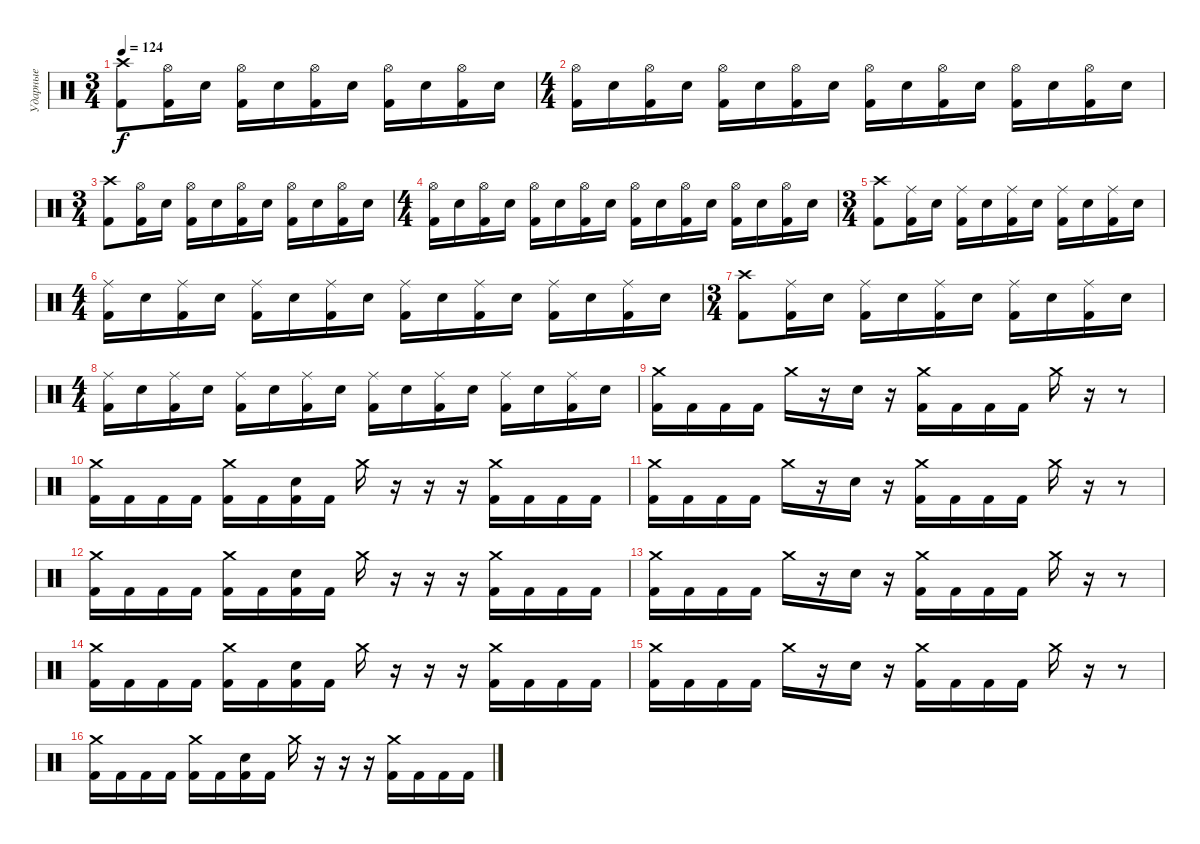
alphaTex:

\track ("Ударные" "Ударные") {instrument percussion}
\staff {score}
\articulation defaults
\ts (3 4)
\tempo 124
\clef neutral
\ks c
("Crash high (hit)" "Kick (hit) 2").8{dy f} ("Hi-Hat (open)" "Kick (hit) 2").16 "Electric Snare (hit)".16 ("Hi-Hat (open)" "Kick (hit) 2").16 "Electric Snare (hit)".16 ("Hi-Hat (open)" "Kick (hit) 2").16 "Electric Snare (hit)".16 ("Hi-Hat (open)" "Kick (hit) 2").16 "Electric Snare (hit)".16 ("Hi-Hat (open)" "Kick (hit) 2").16 "Electric Snare (hit)".16 |
\ts (4 4)
("Hi-Hat (open)" "Kick (hit) 2").16 "Electric Snare (hit)".16 ("Hi-Hat (open)" "Kick (hit) 2").16 "Electric Snare (hit)".16 ("Hi-Hat (open)" "Kick (hit) 2").16 "Electric Snare (hit)".16 ("Hi-Hat (open)" "Kick (hit) 2").16 "Electric Snare (hit)".16 ("Hi-Hat (open)" "Kick (hit) 2").16 "Electric Snare (hit)".16 ("Hi-Hat (open)" "Kick (hit) 2").16 "Electric Snare (hit)".16 ("Hi-Hat (open)" "Kick (hit) 2").16 "Electric Snare (hit)".16 ("Hi-Hat (open)" "Kick (hit) 2").16 "Electric Snare (hit)".16 |
\ts (3 4)
("Crash high (hit)" "Kick (hit) 2").8 ("Hi-Hat (open)" "Kick (hit) 2").16 "Electric Snare (hit)".16 ("Hi-Hat (open)" "Kick (hit) 2").16 "Electric Snare (hit)".16 ("Hi-Hat (open)" "Kick (hit) 2").16 "Electric Snare (hit)".16 ("Hi-Hat (open)" "Kick (hit) 2").16 "Electric Snare (hit)".16 ("Hi-Hat (open)" "Kick (hit) 2").16 "Electric Snare (hit)".16 |
\ts (4 4)
("Hi-Hat (open)" "Kick (hit) 2").16 "Electric Snare (hit)".16 ("Hi-Hat (open)" "Kick (hit) 2").16 "Electric Snare (hit)".16 ("Hi-Hat (open)" "Kick (hit) 2").16 "Electric Snare (hit)".16 ("Hi-Hat (open)" "Kick (hit) 2").16 "Electric Snare (hit)".16 ("Hi-Hat (open)" "Kick (hit) 2").16 "Electric Snare (hit)".16 ("Hi-Hat (open)" "Kick (hit) 2").16 "Electric Snare (hit)".16 ("Hi-Hat (open)" "Kick (hit) 2").16 "Electric Snare (hit)".16 ("Hi-Hat (open)" "Kick (hit) 2").16 "Electric Snare (hit)".16 |
\ts (3 4)
("Crash high (hit)" "Kick (hit) 2").8 ("Ride (middle)" "Kick (hit) 2").16 "Electric Snare (hit)".16 ("Ride (middle)" "Kick (hit) 2").16 "Electric Snare (hit)".16 ("Ride (middle)" "Kick (hit) 2").16 "Electric Snare (hit)".16 ("Ride (middle)" "Kick (hit) 2").16 "Electric Snare (hit)".16 ("Ride (middle)" "Kick (hit) 2").16 "Electric Snare (hit)".16 |
\ts (4 4)
("Ride (middle)" "Kick (hit) 2").16 "Electric Snare (hit)".16 ("Ride (middle)" "Kick (hit) 2").16 "Electric Snare (hit)".16 ("Ride (middle)" "Kick (hit) 2").16 "Electric Snare (hit)".16 ("Ride (middle)" "Kick (hit) 2").16 "Electric Snare (hit)".16 ("Ride (middle)" "Kick (hit) 2").16 "Electric Snare (hit)".16 ("Ride (middle)" "Kick (hit) 2").16 "Electric Snare (hit)".16 ("Ride (middle)" "Kick (hit) 2").16 "Electric Snare (hit)".16 ("Ride (middle)" "Kick (hit) 2").16 "Electric Snare (hit)".16 |
\ts (3 4)
("Crash high (hit)" "Kick (hit) 2").8 ("Ride (middle)" "Kick (hit) 2").16 "Electric Snare (hit)".16 ("Ride (middle)" "Kick (hit) 2").16 "Electric Snare (hit)".16 ("Ride (middle)" "Kick (hit) 2").16 "Electric Snare (hit)".16 ("Ride (middle)" "Kick (hit) 2").16 "Electric Snare (hit)".16 ("Ride (middle)" "Kick (hit) 2").16 "Electric Snare (hit)".16 |
\ts (4 4)
("Ride (middle)" "Kick (hit) 2").16 "Electric Snare (hit)".16 ("Ride (middle)" "Kick (hit) 2").16 "Electric Snare (hit)".16 ("Ride (middle)" "Kick (hit) 2").16 "Electric Snare (hit)".16 ("Ride (middle)" "Kick (hit) 2").16 "Electric Snare (hit)".16 ("Ride (middle)" "Kick (hit) 2").16 "Electric Snare (hit)".16 ("Ride (middle)" "Kick (hit) 2").16 "Electric Snare (hit)".16 ("Ride (middle)" "Kick (hit) 2").16 "Electric Snare (hit)".16 ("Ride (middle)" "Kick (hit) 2").16 "Electric Snare (hit)".16 |
("Crash medium (hit)" "Kick (hit) 2").16 "Kick (hit) 2".16 "Kick (hit) 2".16 "Kick (hit) 2".16 "Crash medium (hit)".16 r.16 "Electric Snare (hit)".16 r.16 ("Crash medium (hit)" "Kick (hit) 2").16 "Kick (hit) 2".16 "Kick (hit) 2".16 "Kick (hit) 2".16 "Crash medium (hit)".16 r.16 r.8 |
("Crash medium (hit)" "Kick (hit) 2").16 "Kick (hit) 2".16 "Kick (hit) 2".16 "Kick (hit) 2".16 ("Crash medium (hit)" "Kick (hit) 2").16 "Kick (hit) 2".16 ("Electric Snare (hit)" "Kick (hit) 2").16 "Kick (hit) 2".16 "Crash medium (hit)".16 r.16 r.16 r.16 ("Crash medium (hit)" "Kick (hit) 2").16 "Kick (hit) 2".16 "Kick (hit) 2".16 "Kick (hit) 2".16 |
("Crash medium (hit)" "Kick (hit) 2").16 "Kick (hit) 2".16 "Kick (hit) 2".16 "Kick (hit) 2".16 "Crash medium (hit)".16 r.16 "Electric Snare (hit)".16 r.16 ("Crash medium (hit)" "Kick (hit) 2").16 "Kick (hit) 2".16 "Kick (hit) 2".16 "Kick (hit) 2".16 "Crash medium (hit)".16 r.16 r.8 |
("Crash medium (hit)" "Kick (hit) 2").16 "Kick (hit) 2".16 "Kick (hit) 2".16 "Kick (hit) 2".16 ("Crash medium (hit)" "Kick (hit) 2").16 "Kick (hit) 2".16 ("Electric Snare (hit)" "Kick (hit) 2").16 "Kick (hit) 2".16 "Crash medium (hit)".16 r.16 r.16 r.16 ("Crash medium (hit)" "Kick (hit) 2").16 "Kick (hit) 2".16 "Kick (hit) 2".16 "Kick (hit) 2".16 |
("Crash medium (hit)" "Kick (hit) 2").16 "Kick (hit) 2".16 "Kick (hit) 2".16 "Kick (hit) 2".16 "Crash medium (hit)".16 r.16 "Electric Snare (hit)".16 r.16 ("Crash medium (hit)" "Kick (hit) 2").16 "Kick (hit) 2".16 "Kick (hit) 2".16 "Kick (hit) 2".16 "Crash medium (hit)".16 r.16 r.8 |
("Crash medium (hit)" "Kick (hit) 2").16 "Kick (hit) 2".16 "Kick (hit) 2".16 "Kick (hit) 2".16 ("Crash medium (hit)" "Kick (hit) 2").16 "Kick (hit) 2".16 ("Electric Snare (hit)" "Kick (hit) 2").16 "Kick (hit) 2".16 "Crash medium (hit)".16 r.16 r.16 r.16 ("Crash medium (hit)" "Kick (hit) 2").16 "Kick (hit) 2".16 "Kick (hit) 2".16 "Kick (hit) 2".16 |
("Crash medium (hit)" "Kick (hit) 2").16 "Kick (hit) 2".16 "Kick (hit) 2".16 "Kick (hit) 2".16 "Crash medium (hit)".16 r.16 "Electric Snare (hit)".16 r.16 ("Crash medium (hit)" "Kick (hit) 2").16 "Kick (hit) 2".16 "Kick (hit) 2".16 "Kick (hit) 2".16 "Crash medium (hit)".16 r.16 r.8 |
("Crash medium (hit)" "Kick (hit) 2").16 "Kick (hit) 2".16 "Kick (hit) 2".16 "Kick (hit) 2".16 ("Crash medium (hit)" "Kick (hit) 2").16 "Kick (hit) 2".16 ("Electric Snare (hit)" "Kick (hit) 2").16 "Kick (hit) 2".16 "Crash medium (hit)".16 r.16 r.16 r.16 ("Crash medium (hit)" "Kick (hit) 2").16 "Kick (hit) 2".16 "Kick (hit) 2".16 "Kick (hit) 2".16
